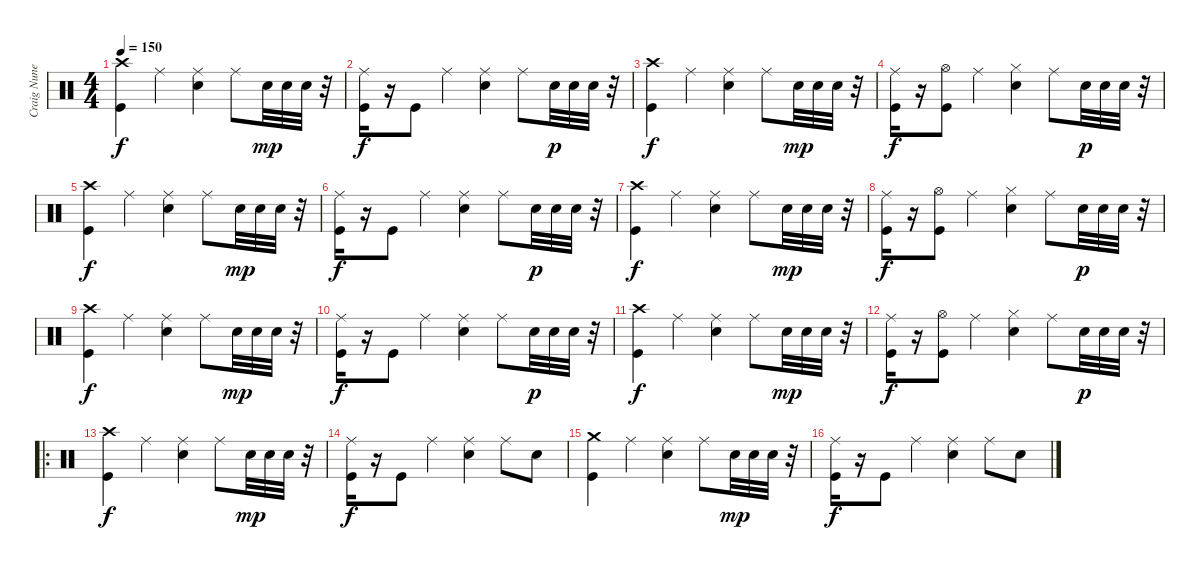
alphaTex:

\track ("Craig Nunenmacher (Drums)" "Craig Nune") {instrument percussion}
\staff {score}
\articulation defaults
\ts (4 4)
\tempo 150
\clef neutral
\ks c
("Crash high (hit)" "Kick (hit)").4{dy f} "Ride (middle)".4 ("Ride (middle)" "Snare (hit) 2").4 "Ride (middle)".8 "Snare (hit) 2".32{dy mp} "Snare (hit) 2".32 "Snare (hit) 2".32 r.32 |
("Ride (middle)" "Kick (hit)").16{dy f} r.16 "Kick (hit)".8 "Ride (middle)".4 ("Ride (middle)" "Snare (hit) 2").4 "Ride (middle)".8 "Snare (hit) 2".32{dy p} "Snare (hit) 2".32 "Snare (hit) 2".32 r.32 |
("Crash high (hit)" "Kick (hit)").4{dy f} "Ride (middle)".4 ("Ride (middle)" "Snare (hit) 2").4 "Ride (middle)".8 "Snare (hit) 2".32{dy mp} "Snare (hit) 2".32 "Snare (hit) 2".32 r.32 |
("Ride (middle)" "Kick (hit)").16{dy f} r.16 ("Hi-Hat (open)" "Kick (hit)").8 "Ride (middle)".4 ("Hi-Hat (closed)" "Snare (hit) 2").4 "Ride (middle)".8 "Snare (hit) 2".32{dy p} "Snare (hit) 2".32 "Snare (hit) 2".32 r.32 |
("Crash high (hit)" "Kick (hit)").4{dy f} "Ride (middle)".4 ("Ride (middle)" "Snare (hit) 2").4 "Ride (middle)".8 "Snare (hit) 2".32{dy mp} "Snare (hit) 2".32 "Snare (hit) 2".32 r.32 |
("Ride (middle)" "Kick (hit)").16{dy f} r.16 "Kick (hit)".8 "Ride (middle)".4 ("Ride (middle)" "Snare (hit) 2").4 "Ride (middle)".8 "Snare (hit) 2".32{dy p} "Snare (hit) 2".32 "Snare (hit) 2".32 r.32 |
("Crash high (hit)" "Kick (hit)").4{dy f} "Ride (middle)".4 ("Ride (middle)" "Snare (hit) 2").4 "Ride (middle)".8 "Snare (hit) 2".32{dy mp} "Snare (hit) 2".32 "Snare (hit) 2".32 r.32 |
("Ride (middle)" "Kick (hit)").16{dy f} r.16 ("Hi-Hat (open)" "Kick (hit)").8 "Ride (middle)".4 ("Hi-Hat (closed)" "Snare (hit) 2").4 "Ride (middle)".8 "Snare (hit) 2".32{dy p} "Snare (hit) 2".32 "Snare (hit) 2".32 r.32 |
("Crash high (hit)" "Kick (hit)").4{dy f} "Ride (middle)".4 ("Ride (middle)" "Snare (hit) 2").4 "Ride (middle)".8 "Snare (hit) 2".32{dy mp} "Snare (hit) 2".32 "Snare (hit) 2".32 r.32 |
("Ride (middle)" "Kick (hit)").16{dy f} r.16 "Kick (hit)".8 "Ride (middle)".4 ("Ride (middle)" "Snare (hit) 2").4 "Ride (middle)".8 "Snare (hit) 2".32{dy p} "Snare (hit) 2".32 "Snare (hit) 2".32 r.32 |
("Crash high (hit)" "Kick (hit)").4{dy f} "Ride (middle)".4 ("Ride (middle)" "Snare (hit) 2").4 "Ride (middle)".8 "Snare (hit) 2".32{dy mp} "Snare (hit) 2".32 "Snare (hit) 2".32 r.32 |
("Ride (middle)" "Kick (hit)").16{dy f} r.16 ("Hi-Hat (open)" "Kick (hit)").8 "Ride (middle)".4 ("Hi-Hat (closed)" "Snare (hit) 2").4 "Ride (middle)".8 "Snare (hit) 2".32{dy p} "Snare (hit) 2".32 "Snare (hit) 2".32 r.32 |
\ro
("Crash high (hit)" "Kick (hit)").4{dy f} "Ride (middle)".4 ("Ride (middle)" "Snare (hit) 2").4 "Ride (middle)".8 "Snare (hit) 2".32{dy mp} "Snare (hit) 2".32 "Snare (hit) 2".32 r.32 |
("Ride (middle)" "Kick (hit)").16{dy f} r.16 "Kick (hit)".8 "Ride (middle)".4 ("Ride (middle)" "Snare (hit) 2").4 "Ride (middle)".8 "Snare (hit) 2".8 |
("Crash medium (hit)" "Kick (hit)").4 "Ride (middle)".4 ("Ride (middle)" "Snare (hit) 2").4 "Ride (middle)".8 "Snare (hit) 2".32{dy mp} "Snare (hit) 2".32 "Snare (hit) 2".32 r.32 |
("Ride (middle)" "Kick (hit)").16{dy f} r.16 "Kick (hit)".8 "Ride (middle)".4 ("Ride (middle)" "Snare (hit) 2").4 "Ride (middle)".8 "Snare (hit) 2".8
